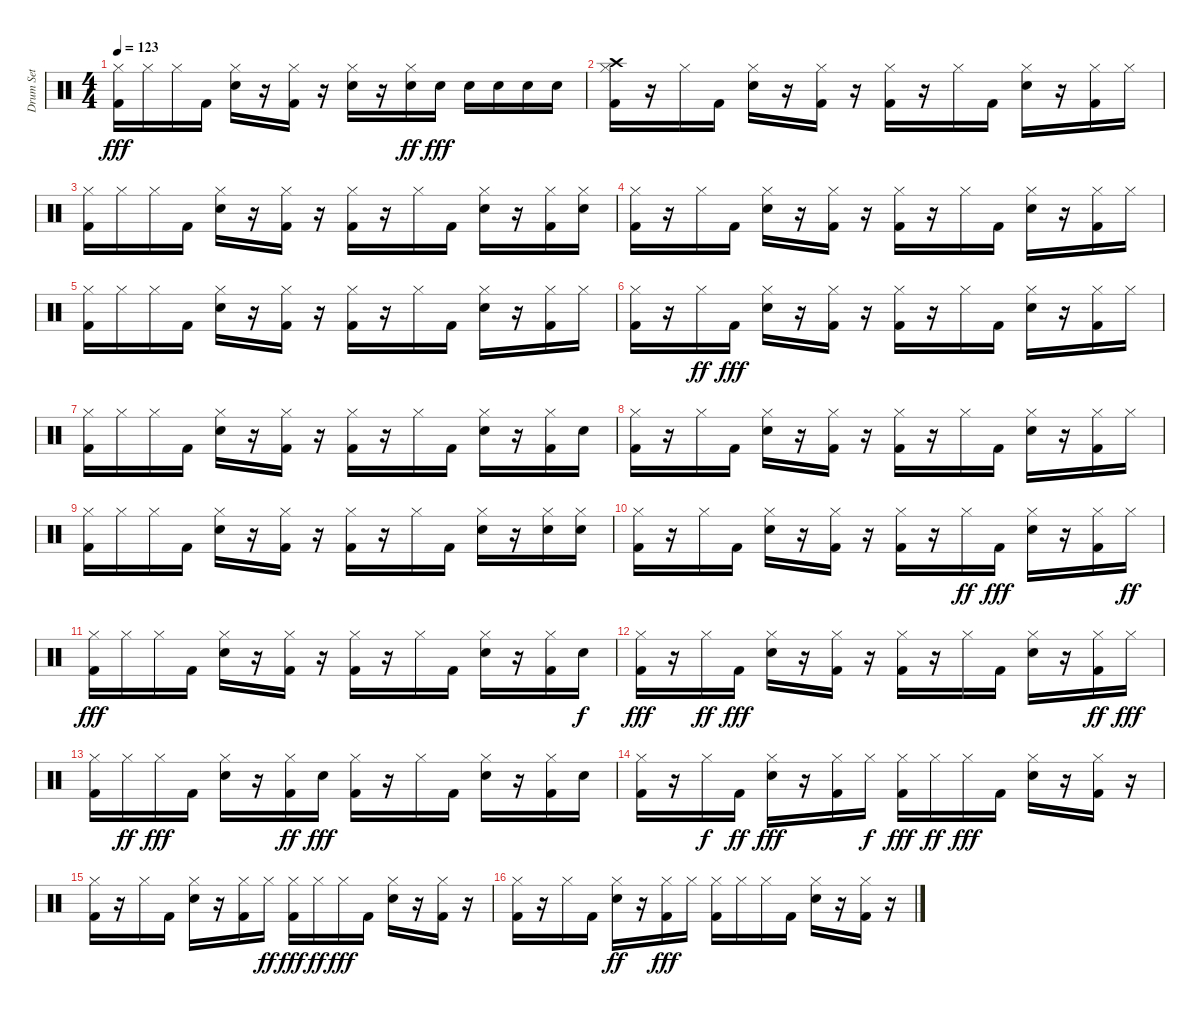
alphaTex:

\track ("Drum Set" "Drum Set") {instrument percussion}
\staff {score}
\articulation defaults
\ts (4 4)
\tempo 123
\clef neutral
\ks c
("Hi-Hat (closed)" "Kick (hit) 2").16{dy fff} "Hi-Hat (closed)".16 "Hi-Hat (closed)".16 "Kick (hit) 2".16 ("Snare (hit) 2" "Hi-Hat (closed)").16 r.16 ("Hi-Hat (closed)" "Kick (hit) 2").16 r.16 ("Hi-Hat (closed)" "Snare (hit) 2").16 r.16 ("Hi-Hat (closed)" "Snare (hit) 2").16{dy ff} "Snare (hit) 2".16{dy fff} "Snare (hit) 2".16 "Snare (hit) 2".16 "Snare (hit) 2".16 "Snare (hit) 2".16 |
("Crash high (hit)" "Kick (hit) 2" "Hi-Hat (closed)").16 r.16 "Hi-Hat (closed)".16 "Kick (hit) 2".16 ("Snare (hit) 2" "Hi-Hat (closed)").16 r.16 ("Kick (hit) 2" "Hi-Hat (closed)").16 r.16 ("Hi-Hat (closed)" "Kick (hit) 2").16 r.16 "Hi-Hat (closed)".16 "Kick (hit) 2".16 ("Hi-Hat (closed)" "Snare (hit) 2").16 r.16 ("Kick (hit) 2" "Hi-Hat (closed)").16 "Hi-Hat (closed)".16 |
("Kick (hit) 2" "Hi-Hat (closed)").16 "Hi-Hat (closed)".16 "Hi-Hat (closed)".16 "Kick (hit) 2".16 ("Snare (hit) 2" "Hi-Hat (closed)").16 r.16 ("Kick (hit) 2" "Hi-Hat (closed)").16 r.16 ("Kick (hit) 2" "Hi-Hat (closed)").16 r.16 "Hi-Hat (closed)".16 "Kick (hit) 2".16 ("Snare (hit) 2" "Hi-Hat (closed)").16 r.16 ("Kick (hit) 2" "Hi-Hat (closed)").16 ("Hi-Hat (closed)" "Snare (hit) 2").16 |
("Hi-Hat (closed)" "Kick (hit) 2").16 r.16 "Hi-Hat (closed)".16 "Kick (hit) 2".16 ("Snare (hit) 2" "Hi-Hat (closed)").16 r.16 ("Kick (hit) 2" "Hi-Hat (closed)").16 r.16 ("Kick (hit) 2" "Hi-Hat (closed)").16 r.16 "Hi-Hat (closed)".16 "Kick (hit) 2".16 ("Snare (hit) 2" "Hi-Hat (closed)").16 r.16 ("Kick (hit) 2" "Hi-Hat (closed)").16 "Hi-Hat (closed)".16 |
("Hi-Hat (closed)" "Kick (hit) 2").16 "Hi-Hat (closed)".16 "Hi-Hat (closed)".16 "Kick (hit) 2".16 ("Hi-Hat (closed)" "Snare (hit) 2").16 r.16 ("Hi-Hat (closed)" "Kick (hit) 2").16 r.16 ("Kick (hit) 2" "Hi-Hat (closed)").16 r.16 "Hi-Hat (closed)".16 "Kick (hit) 2".16 ("Snare (hit) 2" "Hi-Hat (closed)").16 r.16 ("Kick (hit) 2" "Hi-Hat (closed)").16 "Hi-Hat (closed)".16 |
("Hi-Hat (closed)" "Kick (hit) 2").16 r.16 "Hi-Hat (closed)".16{dy ff} "Kick (hit) 2".16{dy fff} ("Snare (hit) 2" "Hi-Hat (closed)").16 r.16 ("Kick (hit) 2" "Hi-Hat (closed)").16 r.16 ("Kick (hit) 2" "Hi-Hat (closed)").16 r.16 "Hi-Hat (closed)".16 "Kick (hit) 2".16 ("Snare (hit) 2" "Hi-Hat (closed)").16 r.16 ("Kick (hit) 2" "Hi-Hat (closed)").16 "Hi-Hat (closed)".16 |
("Hi-Hat (closed)" "Kick (hit) 2").16 "Hi-Hat (closed)".16 "Hi-Hat (closed)".16 "Kick (hit) 2".16 ("Snare (hit) 2" "Hi-Hat (closed)").16 r.16 ("Kick (hit) 2" "Hi-Hat (closed)").16 r.16 ("Kick (hit) 2" "Hi-Hat (closed)").16 r.16 "Hi-Hat (closed)".16 "Kick (hit) 2".16 ("Snare (hit) 2" "Hi-Hat (closed)").16 r.16 ("Kick (hit) 2" "Hi-Hat (closed)").16 "Snare (hit) 2".16 |
("Kick (hit) 2" "Hi-Hat (closed)").16 r.16 "Hi-Hat (closed)".16 "Kick (hit) 2".16 ("Snare (hit) 2" "Hi-Hat (closed)").16 r.16 ("Kick (hit) 2" "Hi-Hat (closed)").16 r.16 ("Kick (hit) 2" "Hi-Hat (closed)").16 r.16 "Hi-Hat (closed)".16 "Kick (hit) 2".16 ("Snare (hit) 2" "Hi-Hat (closed)").16 r.16 ("Kick (hit) 2" "Hi-Hat (closed)").16 "Hi-Hat (closed)".16 |
("Kick (hit) 2" "Hi-Hat (closed)").16 "Hi-Hat (closed)".16 "Hi-Hat (closed)".16 "Kick (hit) 2".16 ("Snare (hit) 2" "Hi-Hat (closed)").16 r.16 ("Kick (hit) 2" "Hi-Hat (closed)").16 r.16 ("Kick (hit) 2" "Hi-Hat (closed)").16 r.16 "Hi-Hat (closed)".16 "Kick (hit) 2".16 ("Hi-Hat (closed)" "Snare (hit) 2").16 r.16 ("Hi-Hat (closed)" "Snare (hit) 2").16 ("Hi-Hat (closed)" "Snare (hit) 2").16 |
("Kick (hit) 2" "Hi-Hat (closed)").16 r.16 "Hi-Hat (closed)".16 "Kick (hit) 2".16 ("Hi-Hat (closed)" "Snare (hit) 2").16 r.16 ("Hi-Hat (closed)" "Kick (hit) 2").16 r.16 ("Hi-Hat (closed)" "Kick (hit) 2").16 r.16 "Hi-Hat (closed)".16{dy ff} "Kick (hit) 2".16{dy fff} ("Hi-Hat (closed)" "Snare (hit) 2").16 r.16 ("Hi-Hat (closed)" "Kick (hit) 2").16 "Hi-Hat (closed)".16{dy ff} |
("Hi-Hat (closed)" "Kick (hit) 2").16{dy fff} "Hi-Hat (closed)".16 "Hi-Hat (closed)".16 "Kick (hit) 2".16 ("Snare (hit) 2" "Hi-Hat (closed)").16 r.16 ("Hi-Hat (closed)" "Kick (hit) 2").16 r.16 ("Hi-Hat (closed)" "Kick (hit) 2").16 r.16 "Hi-Hat (closed)".16 "Kick (hit) 2".16 ("Snare (hit) 2" "Hi-Hat (closed)").16 r.16 ("Kick (hit) 2" "Hi-Hat (closed)").16 "Snare (hit) 2".16{dy f} |
("Hi-Hat (closed)" "Kick (hit) 2").16{dy fff} r.16 "Hi-Hat (closed)".16{dy ff} "Kick (hit) 2".16{dy fff} ("Hi-Hat (closed)" "Snare (hit) 2").16 r.16 ("Hi-Hat (closed)" "Kick (hit) 2").16 r.16 ("Hi-Hat (closed)" "Kick (hit) 2").16 r.16 "Hi-Hat (closed)".16 "Kick (hit) 2".16 ("Hi-Hat (closed)" "Snare (hit) 2").16 r.16 ("Hi-Hat (closed)" "Kick (hit) 2").16{dy ff} "Hi-Hat (closed)".16{dy fff} |
("Hi-Hat (closed)" "Kick (hit) 2").16 "Hi-Hat (closed)".16{dy ff} "Hi-Hat (closed)".16{dy fff} "Kick (hit) 2".16 ("Snare (hit) 2" "Hi-Hat (closed)").16 r.16 ("Hi-Hat (closed)" "Kick (hit) 2").16{dy ff} "Snare (hit) 2".16{dy fff} ("Hi-Hat (closed)" "Kick (hit) 2").16 r.16 "Hi-Hat (closed)".16 "Kick (hit) 2".16 ("Hi-Hat (closed)" "Snare (hit) 2").16 r.16 ("Hi-Hat (closed)" "Kick (hit) 2").16 "Snare (hit) 2".16 |
("Kick (hit) 2" "Hi-Hat (closed)").16 r.16 "Hi-Hat (closed)".16{dy f} "Kick (hit) 2".16{dy ff} ("Snare (hit) 2" "Hi-Hat (closed)").16{dy fff} r.16 ("Kick (hit) 2" "Hi-Hat (closed)").16 "Hi-Hat (closed)".16{dy f} ("Kick (hit) 2" "Hi-Hat (closed)").16{dy fff} "Hi-Hat (closed)".16{dy ff} "Hi-Hat (closed)".16{dy fff} "Kick (hit) 2".16 ("Snare (hit) 2" "Hi-Hat (closed)").16 r.16 ("Kick (hit) 2" "Hi-Hat (closed)").16 r.16 |
("Kick (hit) 2" "Hi-Hat (closed)").16 r.16 "Hi-Hat (closed)".16 "Kick (hit) 2".16 ("Snare (hit) 2" "Hi-Hat (closed)").16 r.16 ("Kick (hit) 2" "Hi-Hat (closed)").16 "Hi-Hat (closed)".16{dy ff} ("Hi-Hat (closed)" "Kick (hit) 2").16{dy fff} "Hi-Hat (closed)".16{dy ff} "Hi-Hat (closed)".16{dy fff} "Kick (hit) 2".16 ("Snare (hit) 2" "Hi-Hat (closed)").16 r.16 ("Kick (hit) 2" "Hi-Hat (closed)").16 r.16 |
("Hi-Hat (closed)" "Kick (hit) 2").16 r.16 "Hi-Hat (closed)".16 "Kick (hit) 2".16 ("Hi-Hat (closed)" "Snare (hit) 2").16{dy ff} r.16 ("Kick (hit) 2" "Hi-Hat (closed)").16{dy fff} "Hi-Hat (closed)".16 ("Hi-Hat (closed)" "Kick (hit) 2").16 "Hi-Hat (closed)".16 "Hi-Hat (closed)".16 "Kick (hit) 2".16 ("Hi-Hat (closed)" "Snare (hit) 2").16 r.16 ("Hi-Hat (closed)" "Kick (hit) 2").16 r.16
